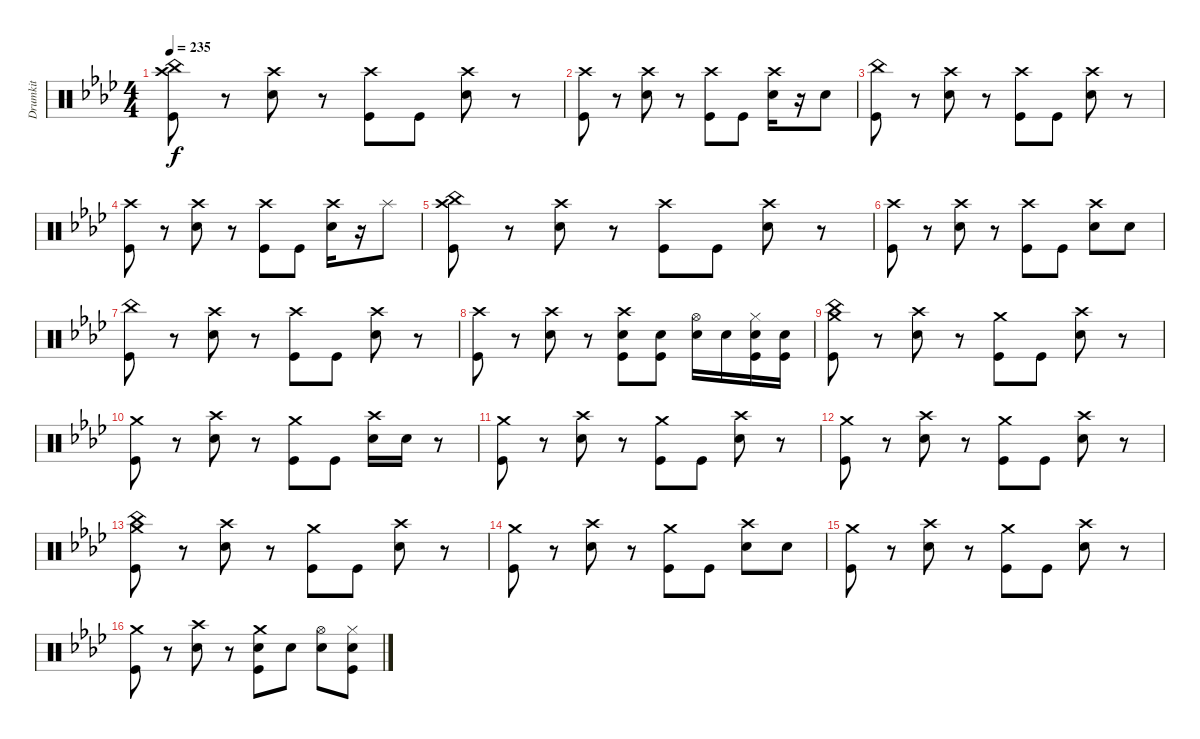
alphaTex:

\track ("Drumkit" "Drumkit") {instrument percussion}
\staff {score}
\articulation defaults
\ts (4 4)
\tempo 235
\clef neutral
\ks ab
("Crash high (hit)" "China (hit)" "Kick (hit)").8{dy f} r.8 ("Crash high (hit)" "Electric Snare (hit)").8 r.8 ("Crash high (hit)" "Kick (hit)").8 "Kick (hit)".8 ("Crash high (hit)" "Electric Snare (hit)").8 r.8 |
("Crash high (hit)" "Kick (hit)").8 r.8 ("Crash high (hit)" "Electric Snare (hit)").8 r.8 ("Crash high (hit)" "Kick (hit)").8 "Kick (hit)".8 ("Crash high (hit)" "Electric Snare (hit)").16 r.16 "Electric Snare (hit)".8 |
("China (hit)" "Kick (hit)").8 r.8 ("Crash high (hit)" "Electric Snare (hit)").8 r.8 ("Crash high (hit)" "Kick (hit)").8 "Kick (hit)".8 ("Crash high (hit)" "Electric Snare (hit)").8 r.8 |
("Crash high (hit)" "Kick (hit)").8 r.8 ("Crash high (hit)" "Electric Snare (hit)").8 r.8 ("Crash high (hit)" "Kick (hit)").8 "Kick (hit)".8 ("Crash high (hit)" "Electric Snare (hit)").16 r.16 "Splash (hit)".8 |
("Crash high (hit)" "China (hit)" "Kick (hit)").8 r.8 ("Crash high (hit)" "Electric Snare (hit)").8 r.8 ("Crash high (hit)" "Kick (hit)").8 "Kick (hit)".8 ("Crash high (hit)" "Electric Snare (hit)").8 r.8 |
("Crash high (hit)" "Kick (hit)").8 r.8 ("Crash high (hit)" "Electric Snare (hit)").8 r.8 ("Crash high (hit)" "Kick (hit)").8 "Kick (hit)".8 ("Crash high (hit)" "Electric Snare (hit)").8 "Electric Snare (hit)".8 |
("China (hit)" "Kick (hit)").8 r.8 ("Crash high (hit)" "Electric Snare (hit)").8 r.8 ("Crash high (hit)" "Kick (hit)").8 "Kick (hit)".8 ("Crash high (hit)" "Electric Snare (hit)").8 r.8 |
("Crash high (hit)" "Kick (hit)").8 r.8 ("Crash high (hit)" "Electric Snare (hit)").8 r.8 ("Crash high (hit)" "Electric Snare (hit)" "Kick (hit)").8 ("Electric Snare (hit)" "Kick (hit)").8 ("Hi-Hat (open)" "Electric Snare (hit)").16 "Electric Snare (hit)".16 ("Hi-Hat (closed)" "Electric Snare (hit)" "Kick (hit)").16 ("Electric Snare (hit)" "Kick (hit)").16 |
("Crash medium (hit)" "China (hit)" "Kick (hit)").8 r.8 ("Crash high (hit)" "Electric Snare (hit)").8 r.8 ("Crash medium (hit)" "Kick (hit)").8 "Kick (hit)".8 ("Crash high (hit)" "Electric Snare (hit)").8 r.8 |
("Crash medium (hit)" "Kick (hit)").8 r.8 ("Crash high (hit)" "Electric Snare (hit)").8 r.8 ("Crash medium (hit)" "Kick (hit)").8 "Kick (hit)".8 ("Crash high (hit)" "Electric Snare (hit)").16 "Electric Snare (hit)".16 r.8 |
("Crash medium (hit)" "Kick (hit)").8 r.8 ("Crash high (hit)" "Electric Snare (hit)").8 r.8 ("Crash medium (hit)" "Kick (hit)").8 "Kick (hit)".8 ("Crash high (hit)" "Electric Snare (hit)").8 r.8 |
("Crash medium (hit)" "Kick (hit)").8 r.8 ("Crash high (hit)" "Electric Snare (hit)").8 r.8 ("Crash medium (hit)" "Kick (hit)").8 "Kick (hit)".8 ("Crash high (hit)" "Electric Snare (hit)").8 r.8 |
("Crash medium (hit)" "China (hit)" "Kick (hit)").8 r.8 ("Crash high (hit)" "Electric Snare (hit)").8 r.8 ("Crash medium (hit)" "Kick (hit)").8 "Kick (hit)".8 ("Crash high (hit)" "Electric Snare (hit)").8 r.8 |
("Crash medium (hit)" "Kick (hit)").8 r.8 ("Crash high (hit)" "Electric Snare (hit)").8 r.8 ("Crash medium (hit)" "Kick (hit)").8 "Kick (hit)".8 ("Crash high (hit)" "Electric Snare (hit)").8 "Electric Snare (hit)".8 |
("Crash medium (hit)" "Kick (hit)").8 r.8 ("Crash high (hit)" "Electric Snare (hit)").8 r.8 ("Crash medium (hit)" "Kick (hit)").8 "Kick (hit)".8 ("Crash high (hit)" "Electric Snare (hit)").8 r.8 |
("Crash medium (hit)" "Kick (hit)").8 r.8 ("Crash high (hit)" "Electric Snare (hit)").8 r.8 ("Crash medium (hit)" "Electric Snare (hit)" "Kick (hit)").8 "Electric Snare (hit)".8 ("Hi-Hat (open)" "Electric Snare (hit)").8 ("Hi-Hat (closed)" "Electric Snare (hit)" "Kick (hit)").8
